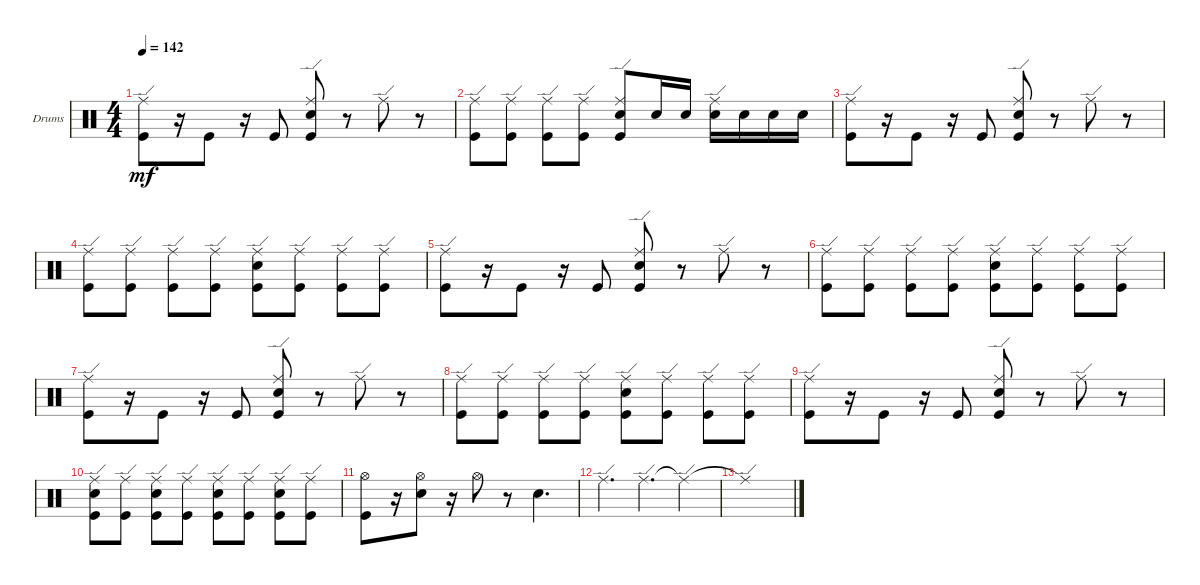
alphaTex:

\bracketExtendMode groupsimilarinstruments
\firstSystemTrackNameOrientation horizontal
\otherSystemsTrackNameOrientation horizontal
\track ("Drumkit" "Drums") {instrument percussion}
\staff {score}
\articulation defaults
\ts (4 4)
\tempo 142
\clef neutral
\ks c
("Kick (hit)" "Ride (edge)").8{dy mf} r.16 "Kick (hit)".8 r.16 "Kick (hit)".8 ("Kick (hit)" "Snare (hit) 2" "Ride (edge)").8 r.8 "Ride (edge)".8 r.8 |
("Kick (hit)" "Ride (edge)").8 ("Kick (hit)" "Ride (edge)").8 ("Kick (hit)" "Ride (edge)").8 ("Kick (hit)" "Ride (edge)").8 ("Kick (hit)" "Ride (edge)" "Snare (hit) 2").8 "Snare (hit) 2".16 "Snare (hit) 2".16 ("Snare (hit) 2" "Ride (edge)").16 "Snare (hit) 2".16 "Snare (hit) 2".16 "Snare (hit) 2".16 |
("Kick (hit)" "Ride (edge)").8 r.16 "Kick (hit)".8 r.16 "Kick (hit)".8 ("Kick (hit)" "Snare (hit) 2" "Ride (edge)").8 r.8 "Ride (edge)".8 r.8 |
("Kick (hit)" "Ride (edge)").8 ("Kick (hit)" "Ride (edge)").8 ("Kick (hit)" "Ride (edge)").8 ("Kick (hit)" "Ride (edge)").8 ("Kick (hit)" "Ride (edge)" "Snare (hit) 2").8 ("Kick (hit)" "Ride (edge)").8 ("Kick (hit)" "Ride (edge)").8 ("Kick (hit)" "Ride (edge)").8 |
("Kick (hit)" "Ride (edge)").8 r.16 "Kick (hit)".8 r.16 "Kick (hit)".8 ("Kick (hit)" "Snare (hit) 2" "Ride (edge)").8 r.8 "Ride (edge)".8 r.8 |
("Kick (hit)" "Ride (edge)").8 ("Kick (hit)" "Ride (edge)").8 ("Kick (hit)" "Ride (edge)").8 ("Kick (hit)" "Ride (edge)").8 ("Kick (hit)" "Ride (edge)" "Snare (hit) 2").8 ("Kick (hit)" "Ride (edge)").8 ("Kick (hit)" "Ride (edge)").8 ("Kick (hit)" "Ride (edge)").8 |
("Kick (hit)" "Ride (edge)").8 r.16 "Kick (hit)".8 r.16 "Kick (hit)".8 ("Kick (hit)" "Snare (hit) 2" "Ride (edge)").8 r.8 "Ride (edge)".8 r.8 |
("Kick (hit)" "Ride (edge)").8 ("Kick (hit)" "Ride (edge)").8 ("Kick (hit)" "Ride (edge)").8 ("Kick (hit)" "Ride (edge)").8 ("Kick (hit)" "Ride (edge)" "Snare (hit) 2").8 ("Kick (hit)" "Ride (edge)").8 ("Kick (hit)" "Ride (edge)").8 ("Kick (hit)" "Ride (edge)").8 |
("Kick (hit)" "Ride (edge)").8 r.16 "Kick (hit)".8 r.16 "Kick (hit)".8 ("Kick (hit)" "Snare (hit) 2" "Ride (edge)").8 r.8 "Ride (edge)".8 r.8 |
("Kick (hit)" "Ride (edge)" "Snare (hit) 2").8 ("Kick (hit)" "Ride (edge)").8 ("Kick (hit)" "Ride (edge)" "Snare (hit) 2").8 ("Kick (hit)" "Ride (edge)").8 ("Kick (hit)" "Ride (edge)" "Snare (hit) 2").8 ("Kick (hit)" "Ride (edge)").8 ("Kick (hit)" "Ride (edge)" "Snare (hit) 2").8 ("Kick (hit)" "Ride (edge)").8 |
("Kick (hit)" "Hi-Hat (open)").8 r.16 ("Snare (hit) 2" "Hi-Hat (open)").8 r.16 "Hi-Hat (open)".8 r.8 "Snare (hit) 2".4{d} |
"Ride (edge)".4{d} "Ride (edge)".4{d} "Ride (edge)"{t}.4 |
"Ride (edge)"{t}.1
